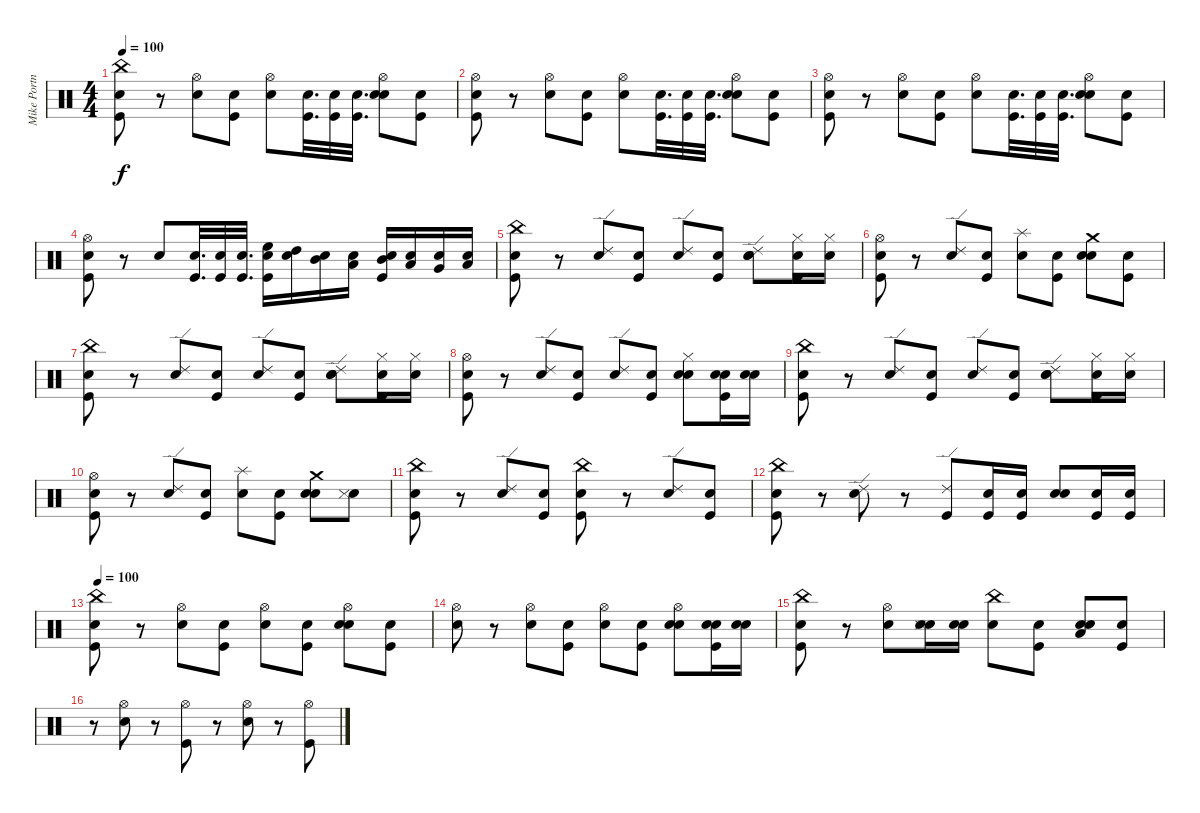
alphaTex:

\track ("Mike Portnoy" "Mike Portn") {instrument percussion}
\staff {score}
\articulation defaults
\ts (4 4)
\tempo 100
\clef neutral
\ks c
("Snare (hit)" "Kick (hit)" "China (hit)").8{dy f} r.8 ("Snare (hit) 2" "Hi-Hat (open)").8 ("Snare (hit)" "Kick (hit)").8 ("Snare (hit)" "Hi-Hat (open)").8 ("Snare (hit)" "Kick (hit)").32{d} ("Snare (hit)" "Kick (hit)").32 ("Snare (hit)" "Kick (hit)").32{d} ("Snare (hit)" "Snare (hit) 2" "Hi-Hat (open)").8 ("Snare (hit)" "Kick (hit)").8 |
("Snare (hit)" "Kick (hit)" "Hi-Hat (open)").8 r.8 ("Snare (hit) 2" "Hi-Hat (open)").8 ("Snare (hit)" "Kick (hit)").8 ("Snare (hit)" "Hi-Hat (open)").8 ("Snare (hit)" "Kick (hit)").32{d} ("Snare (hit)" "Kick (hit)").32 ("Snare (hit)" "Kick (hit)").32{d} ("Snare (hit)" "Snare (hit) 2" "Hi-Hat (open)").8 ("Snare (hit)" "Kick (hit)").8 |
("Snare (hit)" "Kick (hit)" "Hi-Hat (open)").8 r.8 ("Snare (hit) 2" "Hi-Hat (open)").8 ("Snare (hit)" "Kick (hit)").8 ("Snare (hit)" "Hi-Hat (open)").8 ("Snare (hit)" "Kick (hit)").32{d} ("Snare (hit)" "Kick (hit)").32 ("Snare (hit)" "Kick (hit)").32{d} ("Snare (hit)" "Snare (hit) 2" "Hi-Hat (open)").8 ("Snare (hit)" "Kick (hit)").8 |
("Snare (hit)" "Kick (hit)" "Hi-Hat (open)").8 r.8 "Snare (hit) 2".8 ("Snare (hit)" "Kick (hit)").32{d} ("Snare (hit)" "Kick (hit)").32 ("Snare (hit)" "Kick (hit)").32{d} ("Snare (hit)" "Kick (hit)" "High Floor Tom (hit)").16 ("Snare (hit)" "High Tom (hit)").16 ("Snare (hit)" "Mid Tom (hit)").16 ("Snare (hit)" "Low Tom (hit)").16 ("Snare (hit)" "Kick (hit)" "Mid Tom (hit)").16 ("Snare (hit)" "Low Tom (hit)").16 ("Snare (hit)" "Very Low Tom (hit)").16 ("Snare (hit)" "Low Floor Tom (hit)").16 |
("Snare (hit)" "Kick (hit)" "China (hit)").8 r.8 ("Snare (hit) 2" "Ride (edge) 2").8 ("Snare (hit)" "Kick (hit)").8 ("Snare (hit)" "Ride (edge) 2").8 ("Snare (hit)" "Kick (hit)").8 ("Snare (hit)" "Snare (hit) 2" "Ride (edge) 2").8 ("Snare (hit)" "Kick (hit)" "Hi-Hat (closed)").16 ("Snare (hit)" "Hi-Hat (closed)").16 |
("Snare (hit)" "Kick (hit)" "Hi-Hat (open)").8 r.8 ("Snare (hit) 2" "Ride (edge) 2").8 ("Snare (hit)" "Kick (hit)").8 ("Snare (hit)" "Splash (hit)").8 ("Snare (hit)" "Kick (hit)").8 ("Snare (hit)" "Snare (hit) 2" "Crash medium (hit)").8 ("Snare (hit)" "Kick (hit)").8 |
("Snare (hit)" "Kick (hit)" "China (hit)").8 r.8 ("Snare (hit) 2" "Ride (edge) 2").8 ("Snare (hit)" "Kick (hit)").8 ("Snare (hit)" "Ride (edge) 2").8 ("Snare (hit)" "Kick (hit)").8 ("Snare (hit)" "Snare (hit) 2" "Ride (edge) 2").8 ("Snare (hit)" "Kick (hit)" "Hi-Hat (closed)").16 ("Snare (hit)" "Hi-Hat (closed)").16 |
("Snare (hit)" "Kick (hit)" "Hi-Hat (open)").8 r.8 ("Snare (hit) 2" "Ride (edge) 2").8 ("Snare (hit)" "Kick (hit)").8 ("Snare (hit)" "Ride (edge) 2").8 ("Snare (hit)" "Kick (hit)").8 ("Snare (hit)" "Snare (hit) 2" "Hi-Hat (closed)").8 ("Snare (hit)" "Kick (hit)" "Snare (hit) 2").16 ("Snare (hit)" "Snare (hit) 2").16 |
("Snare (hit)" "Kick (hit)" "China (hit)").8 r.8 ("Snare (hit) 2" "Ride (edge) 2").8 ("Snare (hit)" "Kick (hit)").8 ("Snare (hit)" "Ride (edge) 2").8 ("Snare (hit)" "Kick (hit)").8 ("Snare (hit)" "Snare (hit) 2" "Ride (edge) 2").8 ("Snare (hit)" "Kick (hit)" "Hi-Hat (closed)").16 ("Snare (hit)" "Hi-Hat (closed)").16 |
("Snare (hit)" "Kick (hit)" "Hi-Hat (open)").8 r.8 ("Snare (hit) 2" "Ride (edge) 2").8 ("Snare (hit)" "Kick (hit)").8 ("Snare (hit)" "Splash (hit)").8 ("Snare (hit)" "Kick (hit)").8 ("Snare (hit)" "Snare (hit) 2" "Crash medium (hit)").8 ("Snare (hit)" "Metronome (hit)").8 |
("Snare (hit)" "Kick (hit)" "China (hit)").8 r.8 ("Snare (hit) 2" "Ride (edge) 2").8 ("Snare (hit)" "Kick (hit)").8 ("Snare (hit)" "Kick (hit)" "China (hit)").8 r.8 ("Snare (hit) 2" "Ride (edge) 2").8 ("Snare (hit)" "Kick (hit)").8 |
("Snare (hit)" "Kick (hit)" "China (hit)").8 r.8 ("Snare (hit) 2" "Ride (edge) 2").8 r.8 ("Kick (hit)" "Ride (edge) 2").8 ("Snare (hit)" "Kick (hit)").16 ("Snare (hit)" "Kick (hit)").16 ("Snare (hit)" "Snare (hit) 2").8 ("Snare (hit)" "Kick (hit)").16 ("Snare (hit)" "Kick (hit)").16 |
\tempo 100
("Snare (hit)" "Kick (hit)" "China (hit)").8 r.8 ("Snare (hit) 2" "Hi-Hat (open)").8 ("Snare (hit)" "Kick (hit)").8 ("Snare (hit)" "Hi-Hat (open)").8 ("Snare (hit)" "Kick (hit)").8 ("Snare (hit)" "Snare (hit) 2" "Hi-Hat (open)").8 ("Snare (hit)" "Kick (hit)").8 |
("Snare (hit)" "Hi-Hat (open)").8 r.8 ("Snare (hit) 2" "Hi-Hat (open)").8 ("Snare (hit)" "Kick (hit)").8 ("Snare (hit)" "Hi-Hat (open)").8 ("Snare (hit)" "Kick (hit)").8 ("Snare (hit)" "Snare (hit) 2" "Hi-Hat (open)").8 ("Snare (hit)" "Kick (hit)" "Snare (hit) 2").16 ("Snare (hit)" "Snare (hit) 2").16 |
("Snare (hit)" "Kick (hit)" "China (hit)").8 r.8 ("Snare (hit) 2" "Hi-Hat (open)").8 ("Snare (hit)" "Metronome (hit)" "Snare (hit) 2").16 ("Snare (hit)" "Snare (hit) 2").16 ("Snare (hit)" "China (hit)").8 ("Snare (hit)" "Kick (hit)").8 ("Snare (hit)" "Snare (hit) 2" "Low Tom (hit)").8 ("Snare (hit)" "Kick (hit)").8 |
r.8 ("Snare (hit) 2" "Hi-Hat (open)").8 r.8 ("Kick (hit)" "Hi-Hat (open)").8 r.8 ("Snare (hit) 2" "Hi-Hat (open)").8 r.8 ("Kick (hit)" "Hi-Hat (open)").8
